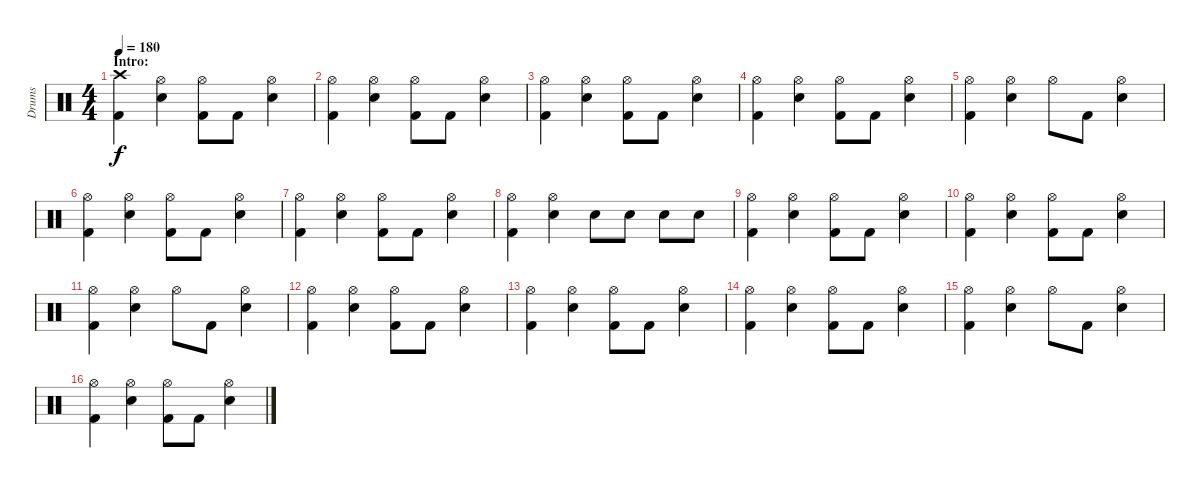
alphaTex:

\track ("Drums" "Drums") {instrument percussion}
\staff {score}
\articulation defaults
\ts (4 4)
\section ("" "Intro:")
\tempo 180
\clef neutral
\ks c
("Crash high (hit)" "Kick (hit) 2").4{dy f} ("Hi-Hat (open)" "Electric Snare (hit)").4 ("Hi-Hat (open)" "Kick (hit) 2").8 "Kick (hit) 2".8 ("Hi-Hat (open)" "Electric Snare (hit)").4 |
("Hi-Hat (open)" "Kick (hit) 2").4 ("Hi-Hat (open)" "Electric Snare (hit)").4 ("Hi-Hat (open)" "Kick (hit) 2").8 "Kick (hit) 2".8 ("Hi-Hat (open)" "Electric Snare (hit)").4 |
("Hi-Hat (open)" "Kick (hit) 2").4 ("Hi-Hat (open)" "Electric Snare (hit)").4 ("Hi-Hat (open)" "Kick (hit) 2").8 "Kick (hit) 2".8 ("Hi-Hat (open)" "Electric Snare (hit)").4 |
("Hi-Hat (open)" "Kick (hit) 2").4 ("Hi-Hat (open)" "Electric Snare (hit)").4 ("Hi-Hat (open)" "Kick (hit) 2").8 "Kick (hit) 2".8 ("Hi-Hat (open)" "Electric Snare (hit)").4 |
("Hi-Hat (open)" "Kick (hit) 2").4 ("Hi-Hat (open)" "Electric Snare (hit)").4 "Hi-Hat (open)".8 "Kick (hit) 2".8 ("Hi-Hat (open)" "Electric Snare (hit)").4 |
("Hi-Hat (open)" "Kick (hit) 2").4 ("Hi-Hat (open)" "Electric Snare (hit)").4 ("Hi-Hat (open)" "Kick (hit) 2").8 "Kick (hit) 2".8 ("Hi-Hat (open)" "Electric Snare (hit)").4 |
("Hi-Hat (open)" "Kick (hit) 2").4 ("Hi-Hat (open)" "Electric Snare (hit)").4 ("Hi-Hat (open)" "Kick (hit) 2").8 "Kick (hit) 2".8 ("Hi-Hat (open)" "Electric Snare (hit)").4 |
("Hi-Hat (open)" "Kick (hit) 2").4 ("Hi-Hat (open)" "Electric Snare (hit)").4 "Electric Snare (hit)".8 "Electric Snare (hit)".8 "Electric Snare (hit)".8 "Electric Snare (hit)".8 |
("Hi-Hat (open)" "Kick (hit) 2").4 ("Hi-Hat (open)" "Electric Snare (hit)").4 ("Hi-Hat (open)" "Kick (hit) 2").8 "Kick (hit) 2".8 ("Hi-Hat (open)" "Electric Snare (hit)").4 |
("Hi-Hat (open)" "Kick (hit) 2").4 ("Hi-Hat (open)" "Electric Snare (hit)").4 ("Hi-Hat (open)" "Kick (hit) 2").8 "Kick (hit) 2".8 ("Hi-Hat (open)" "Electric Snare (hit)").4 |
("Hi-Hat (open)" "Kick (hit) 2").4 ("Hi-Hat (open)" "Electric Snare (hit)").4 "Hi-Hat (open)".8 "Kick (hit) 2".8 ("Hi-Hat (open)" "Electric Snare (hit)").4 |
("Hi-Hat (open)" "Kick (hit) 2").4 ("Hi-Hat (open)" "Electric Snare (hit)").4 ("Hi-Hat (open)" "Kick (hit) 2").8 "Kick (hit) 2".8 ("Hi-Hat (open)" "Electric Snare (hit)").4 |
("Hi-Hat (open)" "Kick (hit) 2").4 ("Hi-Hat (open)" "Electric Snare (hit)").4 ("Hi-Hat (open)" "Kick (hit) 2").8 "Kick (hit) 2".8 ("Hi-Hat (open)" "Electric Snare (hit)").4 |
("Hi-Hat (open)" "Kick (hit) 2").4 ("Hi-Hat (open)" "Electric Snare (hit)").4 ("Hi-Hat (open)" "Kick (hit) 2").8 "Kick (hit) 2".8 ("Hi-Hat (open)" "Electric Snare (hit)").4 |
("Hi-Hat (open)" "Kick (hit) 2").4 ("Hi-Hat (open)" "Electric Snare (hit)").4 "Hi-Hat (open)".8 "Kick (hit) 2".8 ("Hi-Hat (open)" "Electric Snare (hit)").4 |
("Hi-Hat (open)" "Kick (hit) 2").4 ("Hi-Hat (open)" "Electric Snare (hit)").4 ("Hi-Hat (open)" "Kick (hit) 2").8 "Kick (hit) 2".8 ("Hi-Hat (open)" "Electric Snare (hit)").4
